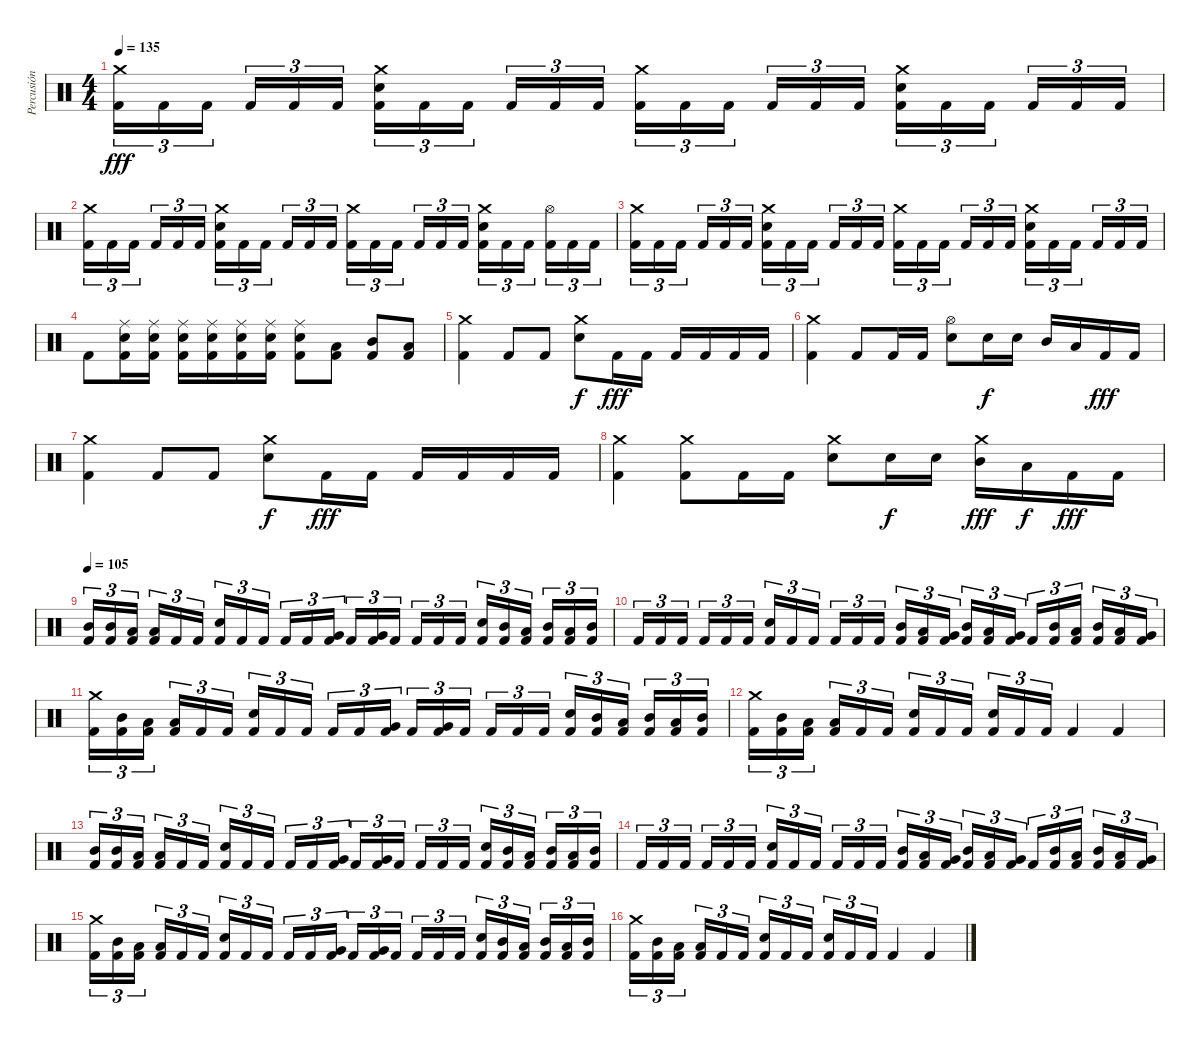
\track ("Percusión" "Percusión") {instrument percussion}
\staff {score}
\articulation defaults
\ts (4 4)
\tempo 135
\clef neutral
\ks c
("Crash medium (hit)" "Kick (hit) 2").16{tu (3 2) dy fff} "Kick (hit) 2".16{tu (3 2)} "Kick (hit) 2".16{tu (3 2) beam splitsecondary} "Kick (hit) 2".16{tu (3 2)} "Kick (hit) 2".16{tu (3 2)} "Kick (hit) 2".16{tu (3 2)} ("Crash medium (hit)" "Electric Snare (hit)" "Kick (hit) 2").16{tu (3 2)} "Kick (hit) 2".16{tu (3 2)} "Kick (hit) 2".16{tu (3 2) beam splitsecondary} "Kick (hit) 2".16{tu (3 2)} "Kick (hit) 2".16{tu (3 2)} "Kick (hit) 2".16{tu (3 2)} ("Crash medium (hit)" "Kick (hit) 2").16{tu (3 2)} "Kick (hit) 2".16{tu (3 2)} "Kick (hit) 2".16{tu (3 2) beam splitsecondary} "Kick (hit) 2".16{tu (3 2)} "Kick (hit) 2".16{tu (3 2)} "Kick (hit) 2".16{tu (3 2)} ("Crash medium (hit)" "Electric Snare (hit)" "Kick (hit) 2").16{tu (3 2)} "Kick (hit) 2".16{tu (3 2)} "Kick (hit) 2".16{tu (3 2) beam splitsecondary} "Kick (hit) 2".16{tu (3 2)} "Kick (hit) 2".16{tu (3 2)} "Kick (hit) 2".16{tu (3 2)} |
("Crash medium (hit)" "Kick (hit) 2").16{tu (3 2)} "Kick (hit) 2".16{tu (3 2)} "Kick (hit) 2".16{tu (3 2) beam splitsecondary} "Kick (hit) 2".16{tu (3 2)} "Kick (hit) 2".16{tu (3 2)} "Kick (hit) 2".16{tu (3 2)} ("Crash medium (hit)" "Electric Snare (hit)" "Kick (hit) 2").16{tu (3 2)} "Kick (hit) 2".16{tu (3 2)} "Kick (hit) 2".16{tu (3 2) beam splitsecondary} "Kick (hit) 2".16{tu (3 2)} "Kick (hit) 2".16{tu (3 2)} "Kick (hit) 2".16{tu (3 2)} ("Crash medium (hit)" "Kick (hit) 2").16{tu (3 2)} "Kick (hit) 2".16{tu (3 2)} "Kick (hit) 2".16{tu (3 2) beam splitsecondary} "Kick (hit) 2".16{tu (3 2)} "Kick (hit) 2".16{tu (3 2)} "Kick (hit) 2".16{tu (3 2)} ("Crash medium (hit)" "Electric Snare (hit)" "Kick (hit) 2").16{tu (3 2)} "Kick (hit) 2".16{tu (3 2)} "Kick (hit) 2".16{tu (3 2) beam splitsecondary} ("Hi-Hat (open)" "Kick (hit) 2").16{tu (3 2)} "Kick (hit) 2".16{tu (3 2)} "Kick (hit) 2".16{tu (3 2)} |
("Crash medium (hit)" "Kick (hit) 2").16{tu (3 2)} "Kick (hit) 2".16{tu (3 2)} "Kick (hit) 2".16{tu (3 2) beam splitsecondary} "Kick (hit) 2".16{tu (3 2)} "Kick (hit) 2".16{tu (3 2)} "Kick (hit) 2".16{tu (3 2)} ("Crash medium (hit)" "Electric Snare (hit)" "Kick (hit) 2").16{tu (3 2)} "Kick (hit) 2".16{tu (3 2)} "Kick (hit) 2".16{tu (3 2) beam splitsecondary} "Kick (hit) 2".16{tu (3 2)} "Kick (hit) 2".16{tu (3 2)} "Kick (hit) 2".16{tu (3 2)} ("Crash medium (hit)" "Kick (hit) 2").16{tu (3 2)} "Kick (hit) 2".16{tu (3 2)} "Kick (hit) 2".16{tu (3 2) beam splitsecondary} "Kick (hit) 2".16{tu (3 2)} "Kick (hit) 2".16{tu (3 2)} "Kick (hit) 2".16{tu (3 2)} ("Crash medium (hit)" "Electric Snare (hit)" "Kick (hit) 2").16{tu (3 2)} "Kick (hit) 2".16{tu (3 2)} "Kick (hit) 2".16{tu (3 2) beam splitsecondary} "Kick (hit) 2".16{tu (3 2)} "Kick (hit) 2".16{tu (3 2)} "Kick (hit) 2".16{tu (3 2)} |
"Kick (hit) 2".8 ("Ride (middle)" "Electric Snare (hit)" "Kick (hit) 2").16 ("Ride (middle)" "Electric Snare (hit)" "Kick (hit) 2").16 ("Ride (middle)" "Electric Snare (hit)" "Kick (hit) 2").16 ("Ride (middle)" "Electric Snare (hit)" "Kick (hit) 2").16 ("Ride (middle)" "Electric Snare (hit)" "Kick (hit) 2").16 ("Ride (middle)" "Electric Snare (hit)" "Kick (hit) 2").16 ("Ride (middle)" "Electric Snare (hit)" "Kick (hit) 2").8 ("Low Tom (hit)" "Kick (hit) 2").8 ("Mid Tom (hit)" "Kick (hit) 2").8 ("Low Tom (hit)" "Kick (hit) 2").8 |
("Crash medium (hit)" "Kick (hit) 2").4 "Kick (hit) 2".8 "Kick (hit) 2".8 ("Crash medium (hit)" "Electric Snare (hit)").8{dy f} "Kick (hit) 2".16{dy fff} "Kick (hit) 2".16 "Kick (hit) 2".16 "Kick (hit) 2".16 "Kick (hit) 2".16 "Kick (hit) 2".16 |
("Crash medium (hit)" "Kick (hit) 2").4 "Kick (hit) 2".8 "Kick (hit) 2".16 "Kick (hit) 2".16 ("Hi-Hat (open)" "Electric Snare (hit)").8 "Electric Snare (hit)".16{dy f} "Electric Snare (hit)".16 "Mid Tom (hit)".16 "Low Tom (hit)".16 "Kick (hit) 2".16{dy fff} "Kick (hit) 2".16 |
("Crash medium (hit)" "Kick (hit) 2").4 "Kick (hit) 2".8 "Kick (hit) 2".8 ("Crash medium (hit)" "Electric Snare (hit)").8{dy f} "Kick (hit) 2".16{dy fff} "Kick (hit) 2".16 "Kick (hit) 2".16 "Kick (hit) 2".16 "Kick (hit) 2".16 "Kick (hit) 2".16 |
("Crash medium (hit)" "Kick (hit) 2").4 ("Crash medium (hit)" "Kick (hit) 2").8 "Kick (hit) 2".16 "Kick (hit) 2".16 ("Crash medium (hit)" "Electric Snare (hit)").8 "Electric Snare (hit)".16{dy f} "Electric Snare (hit)".16 ("Crash medium (hit)" "Mid Tom (hit)").16{dy fff} "Low Tom (hit)".16{dy f} "Kick (hit) 2".16{dy fff} "Kick (hit) 2".16 |
\tempo 105
("Mid Tom (hit)" "Kick (hit) 2").16{tu (3 2)} ("Mid Tom (hit)" "Kick (hit) 2").16{tu (3 2)} ("Low Tom (hit)" "Kick (hit) 2").16{tu (3 2) beam splitsecondary} ("Low Tom (hit)" "Kick (hit) 2").16{tu (3 2)} "Kick (hit) 2".16{tu (3 2)} "Kick (hit) 2".16{tu (3 2)} ("Electric Snare (hit)" "Kick (hit) 2").16{tu (3 2)} "Kick (hit) 2".16{tu (3 2)} "Kick (hit) 2".16{tu (3 2) beam splitsecondary} "Kick (hit) 2".16{tu (3 2)} "Kick (hit) 2".16{tu (3 2)} ("Very Low Tom (hit)" "Kick (hit) 2").16{tu (3 2)} "Kick (hit) 2".16{tu (3 2)} ("Very Low Tom (hit)" "Kick (hit) 2").16{tu (3 2)} "Kick (hit) 2".16{tu (3 2) beam splitsecondary} "Kick (hit) 2".16{tu (3 2)} "Kick (hit) 2".16{tu (3 2)} "Kick (hit) 2".16{tu (3 2)} ("Electric Snare (hit)" "Kick (hit) 2").16{tu (3 2)} ("Mid Tom (hit)" "Kick (hit) 2").16{tu (3 2)} ("Low Tom (hit)" "Kick (hit) 2").16{tu (3 2) beam splitsecondary} ("Mid Tom (hit)" "Kick (hit) 2").16{tu (3 2)} ("Low Tom (hit)" "Kick (hit) 2").16{tu (3 2)} ("Mid Tom (hit)" "Kick (hit) 2").16{tu (3 2)} |
"Kick (hit) 2".16{tu (3 2)} "Kick (hit) 2".16{tu (3 2)} "Kick (hit) 2".16{tu (3 2) beam splitsecondary} "Kick (hit) 2".16{tu (3 2)} "Kick (hit) 2".16{tu (3 2)} "Kick (hit) 2".16{tu (3 2)} ("Electric Snare (hit)" "Kick (hit) 2").16{tu (3 2)} "Kick (hit) 2".16{tu (3 2)} "Kick (hit) 2".16{tu (3 2) beam splitsecondary} "Kick (hit) 2".16{tu (3 2)} "Kick (hit) 2".16{tu (3 2)} "Kick (hit) 2".16{tu (3 2)} ("Mid Tom (hit)" "Kick (hit) 2").16{tu (3 2)} ("Low Tom (hit)" "Kick (hit) 2").16{tu (3 2)} ("Very Low Tom (hit)" "Kick (hit) 2").16{tu (3 2) beam splitsecondary} ("Mid Tom (hit)" "Kick (hit) 2").16{tu (3 2)} ("Low Tom (hit)" "Kick (hit) 2").16{tu (3 2)} ("Very Low Tom (hit)" "Kick (hit) 2").16{tu (3 2)} "Kick (hit) 2".16{tu (3 2)} ("Mid Tom (hit)" "Kick (hit) 2").16{tu (3 2)} ("Low Tom (hit)" "Kick (hit) 2").16{tu (3 2) beam splitsecondary} ("Mid Tom (hit)" "Kick (hit) 2").16{tu (3 2)} ("Low Tom (hit)" "Kick (hit) 2").16{tu (3 2)} ("Very Low Tom (hit)" "Kick (hit) 2").16{tu (3 2)} |
("Crash medium (hit)" "Kick (hit) 2").16{tu (3 2)} ("Mid Tom (hit)" "Kick (hit) 2").16{tu (3 2)} ("Low Tom (hit)" "Kick (hit) 2").16{tu (3 2) beam splitsecondary} ("Low Tom (hit)" "Kick (hit) 2").16{tu (3 2)} "Kick (hit) 2".16{tu (3 2)} "Kick (hit) 2".16{tu (3 2)} ("Electric Snare (hit)" "Kick (hit) 2").16{tu (3 2)} "Kick (hit) 2".16{tu (3 2)} "Kick (hit) 2".16{tu (3 2) beam splitsecondary} "Kick (hit) 2".16{tu (3 2)} "Kick (hit) 2".16{tu (3 2)} ("Very Low Tom (hit)" "Kick (hit) 2").16{tu (3 2)} "Kick (hit) 2".16{tu (3 2)} ("Very Low Tom (hit)" "Kick (hit) 2").16{tu (3 2)} "Kick (hit) 2".16{tu (3 2) beam splitsecondary} "Kick (hit) 2".16{tu (3 2)} "Kick (hit) 2".16{tu (3 2)} "Kick (hit) 2".16{tu (3 2)} ("Electric Snare (hit)" "Kick (hit) 2").16{tu (3 2)} ("Mid Tom (hit)" "Kick (hit) 2").16{tu (3 2)} ("Low Tom (hit)" "Kick (hit) 2").16{tu (3 2) beam splitsecondary} ("Mid Tom (hit)" "Kick (hit) 2").16{tu (3 2)} ("Low Tom (hit)" "Kick (hit) 2").16{tu (3 2)} ("Mid Tom (hit)" "Kick (hit) 2").16{tu (3 2)} |
("Crash medium (hit)" "Kick (hit) 2").16{tu (3 2)} ("Mid Tom (hit)" "Kick (hit) 2").16{tu (3 2)} ("Low Tom (hit)" "Kick (hit) 2").16{tu (3 2) beam splitsecondary} ("Low Tom (hit)" "Kick (hit) 2").16{tu (3 2)} "Kick (hit) 2".16{tu (3 2)} "Kick (hit) 2".16{tu (3 2)} ("Electric Snare (hit)" "Kick (hit) 2").16{tu (3 2)} "Kick (hit) 2".16{tu (3 2)} "Kick (hit) 2".16{tu (3 2) beam splitsecondary} ("Electric Snare (hit)" "Kick (hit) 2").16{tu (3 2)} "Kick (hit) 2".16{tu (3 2)} "Kick (hit) 2".16{tu (3 2)} "Kick (hit) 2".4 "Kick (hit) 2".4 |
("Mid Tom (hit)" "Kick (hit) 2").16{tu (3 2)} ("Mid Tom (hit)" "Kick (hit) 2").16{tu (3 2)} ("Low Tom (hit)" "Kick (hit) 2").16{tu (3 2) beam splitsecondary} ("Low Tom (hit)" "Kick (hit) 2").16{tu (3 2)} "Kick (hit) 2".16{tu (3 2)} "Kick (hit) 2".16{tu (3 2)} ("Electric Snare (hit)" "Kick (hit) 2").16{tu (3 2)} "Kick (hit) 2".16{tu (3 2)} "Kick (hit) 2".16{tu (3 2) beam splitsecondary} "Kick (hit) 2".16{tu (3 2)} "Kick (hit) 2".16{tu (3 2)} ("Very Low Tom (hit)" "Kick (hit) 2").16{tu (3 2)} "Kick (hit) 2".16{tu (3 2)} ("Very Low Tom (hit)" "Kick (hit) 2").16{tu (3 2)} "Kick (hit) 2".16{tu (3 2) beam splitsecondary} "Kick (hit) 2".16{tu (3 2)} "Kick (hit) 2".16{tu (3 2)} "Kick (hit) 2".16{tu (3 2)} ("Electric Snare (hit)" "Kick (hit) 2").16{tu (3 2)} ("Mid Tom (hit)" "Kick (hit) 2").16{tu (3 2)} ("Low Tom (hit)" "Kick (hit) 2").16{tu (3 2) beam splitsecondary} ("Mid Tom (hit)" "Kick (hit) 2").16{tu (3 2)} ("Low Tom (hit)" "Kick (hit) 2").16{tu (3 2)} ("Mid Tom (hit)" "Kick (hit) 2").16{tu (3 2)} |
"Kick (hit) 2".16{tu (3 2)} "Kick (hit) 2".16{tu (3 2)} "Kick (hit) 2".16{tu (3 2) beam splitsecondary} "Kick (hit) 2".16{tu (3 2)} "Kick (hit) 2".16{tu (3 2)} "Kick (hit) 2".16{tu (3 2)} ("Electric Snare (hit)" "Kick (hit) 2").16{tu (3 2)} "Kick (hit) 2".16{tu (3 2)} "Kick (hit) 2".16{tu (3 2) beam splitsecondary} "Kick (hit) 2".16{tu (3 2)} "Kick (hit) 2".16{tu (3 2)} "Kick (hit) 2".16{tu (3 2)} ("Mid Tom (hit)" "Kick (hit) 2").16{tu (3 2)} ("Low Tom (hit)" "Kick (hit) 2").16{tu (3 2)} ("Very Low Tom (hit)" "Kick (hit) 2").16{tu (3 2) beam splitsecondary} ("Mid Tom (hit)" "Kick (hit) 2").16{tu (3 2)} ("Low Tom (hit)" "Kick (hit) 2").16{tu (3 2)} ("Very Low Tom (hit)" "Kick (hit) 2").16{tu (3 2)} "Kick (hit) 2".16{tu (3 2)} ("Mid Tom (hit)" "Kick (hit) 2").16{tu (3 2)} ("Low Tom (hit)" "Kick (hit) 2").16{tu (3 2) beam splitsecondary} ("Mid Tom (hit)" "Kick (hit) 2").16{tu (3 2)} ("Low Tom (hit)" "Kick (hit) 2").16{tu (3 2)} ("Very Low Tom (hit)" "Kick (hit) 2").16{tu (3 2)} |
("Crash medium (hit)" "Kick (hit) 2").16{tu (3 2)} ("Mid Tom (hit)" "Kick (hit) 2").16{tu (3 2)} ("Low Tom (hit)" "Kick (hit) 2").16{tu (3 2) beam splitsecondary} ("Low Tom (hit)" "Kick (hit) 2").16{tu (3 2)} "Kick (hit) 2".16{tu (3 2)} "Kick (hit) 2".16{tu (3 2)} ("Electric Snare (hit)" "Kick (hit) 2").16{tu (3 2)} "Kick (hit) 2".16{tu (3 2)} "Kick (hit) 2".16{tu (3 2) beam splitsecondary} "Kick (hit) 2".16{tu (3 2)} "Kick (hit) 2".16{tu (3 2)} ("Very Low Tom (hit)" "Kick (hit) 2").16{tu (3 2)} "Kick (hit) 2".16{tu (3 2)} ("Very Low Tom (hit)" "Kick (hit) 2").16{tu (3 2)} "Kick (hit) 2".16{tu (3 2) beam splitsecondary} "Kick (hit) 2".16{tu (3 2)} "Kick (hit) 2".16{tu (3 2)} "Kick (hit) 2".16{tu (3 2)} ("Electric Snare (hit)" "Kick (hit) 2").16{tu (3 2)} ("Mid Tom (hit)" "Kick (hit) 2").16{tu (3 2)} ("Low Tom (hit)" "Kick (hit) 2").16{tu (3 2) beam splitsecondary} ("Mid Tom (hit)" "Kick (hit) 2").16{tu (3 2)} ("Low Tom (hit)" "Kick (hit) 2").16{tu (3 2)} ("Mid Tom (hit)" "Kick (hit) 2").16{tu (3 2)} |
("Crash medium (hit)" "Kick (hit) 2").16{tu (3 2)} ("Mid Tom (hit)" "Kick (hit) 2").16{tu (3 2)} ("Low Tom (hit)" "Kick (hit) 2").16{tu (3 2) beam splitsecondary} ("Low Tom (hit)" "Kick (hit) 2").16{tu (3 2)} "Kick (hit) 2".16{tu (3 2)} "Kick (hit) 2".16{tu (3 2)} ("Electric Snare (hit)" "Kick (hit) 2").16{tu (3 2)} "Kick (hit) 2".16{tu (3 2)} "Kick (hit) 2".16{tu (3 2) beam splitsecondary} ("Electric Snare (hit)" "Kick (hit) 2").16{tu (3 2)} "Kick (hit) 2".16{tu (3 2)} "Kick (hit) 2".16{tu (3 2)} "Kick (hit) 2".4 "Kick (hit) 2".4
